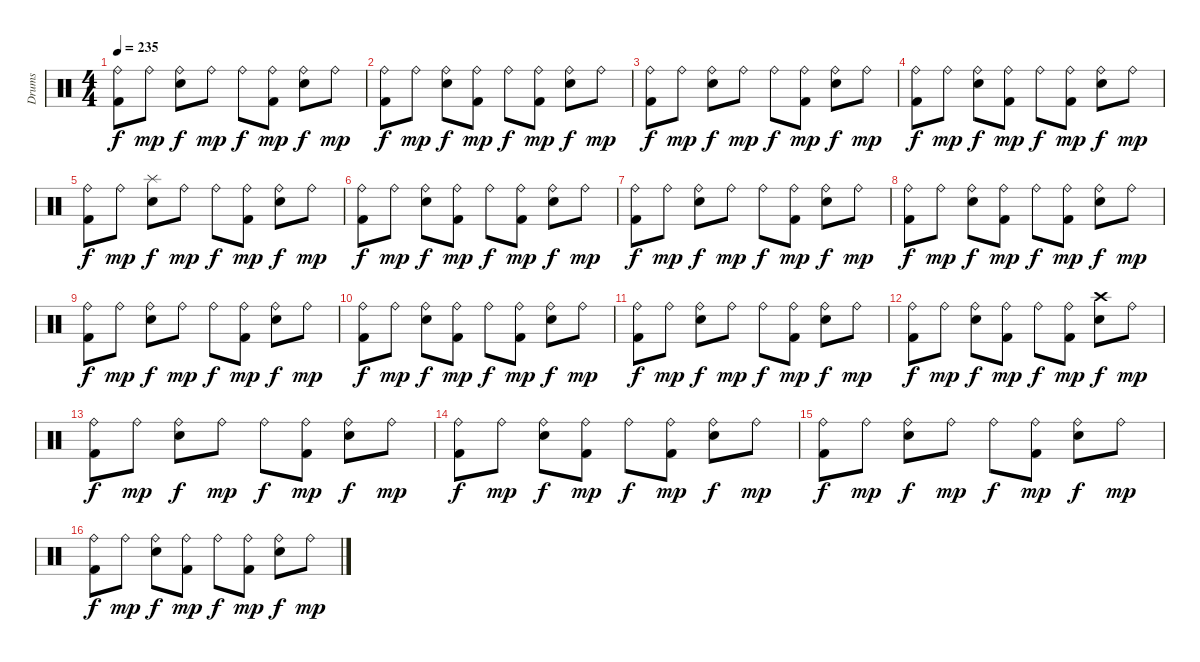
\track ("Drums" "Drums") {instrument percussion}
\staff {score}
\articulation defaults
\ts (4 4)
\tempo 235
\clef neutral
\ks c
("Ride (bell)" "Kick (hit) 2").8{dy f} "Ride (bell)".8{dy mp} ("Ride (bell)" "Snare (hit) 2").8{dy f} "Ride (bell)".8{dy mp} "Ride (bell)".8{dy f} ("Ride (bell)" "Kick (hit) 2").8{dy mp} ("Ride (bell)" "Snare (hit) 2").8{dy f} "Ride (bell)".8{dy mp} |
("Ride (bell)" "Kick (hit) 2").8{dy f} "Ride (bell)".8{dy mp} ("Ride (bell)" "Snare (hit) 2").8{dy f} ("Ride (bell)" "Kick (hit) 2").8{dy mp} "Ride (bell)".8{dy f} ("Ride (bell)" "Kick (hit) 2").8{dy mp} ("Ride (bell)" "Snare (hit) 2").8{dy f} "Ride (bell)".8{dy mp} |
("Ride (bell)" "Kick (hit) 2").8{dy f} "Ride (bell)".8{dy mp} ("Ride (bell)" "Snare (hit) 2").8{dy f} "Ride (bell)".8{dy mp} "Ride (bell)".8{dy f} ("Ride (bell)" "Kick (hit) 2").8{dy mp} ("Ride (bell)" "Snare (hit) 2").8{dy f} "Ride (bell)".8{dy mp} |
("Ride (bell)" "Kick (hit) 2").8{dy f} "Ride (bell)".8{dy mp} ("Ride (bell)" "Snare (hit) 2").8{dy f} ("Ride (bell)" "Kick (hit) 2").8{dy mp} "Ride (bell)".8{dy f} ("Ride (bell)" "Kick (hit) 2").8{dy mp} ("Ride (bell)" "Snare (hit) 2").8{dy f} "Ride (bell)".8{dy mp} |
("Ride (bell)" "Kick (hit) 2").8{dy f} "Ride (bell)".8{dy mp} ("Splash (hit)" "Snare (hit) 2").8{dy f} "Ride (bell)".8{dy mp} "Ride (bell)".8{dy f} ("Ride (bell)" "Kick (hit) 2").8{dy mp} ("Ride (bell)" "Snare (hit) 2").8{dy f} "Ride (bell)".8{dy mp} |
("Ride (bell)" "Kick (hit) 2").8{dy f} "Ride (bell)".8{dy mp} ("Ride (bell)" "Snare (hit) 2").8{dy f} ("Ride (bell)" "Kick (hit) 2").8{dy mp} "Ride (bell)".8{dy f} ("Ride (bell)" "Kick (hit) 2").8{dy mp} ("Ride (bell)" "Snare (hit) 2").8{dy f} "Ride (bell)".8{dy mp} |
("Ride (bell)" "Kick (hit) 2").8{dy f} "Ride (bell)".8{dy mp} ("Ride (bell)" "Snare (hit) 2").8{dy f} "Ride (bell)".8{dy mp} "Ride (bell)".8{dy f} ("Ride (bell)" "Kick (hit) 2").8{dy mp} ("Ride (bell)" "Snare (hit) 2").8{dy f} "Ride (bell)".8{dy mp} |
("Ride (bell)" "Kick (hit) 2").8{dy f} "Ride (bell)".8{dy mp} ("Ride (bell)" "Snare (hit) 2").8{dy f} ("Ride (bell)" "Kick (hit) 2").8{dy mp} "Ride (bell)".8{dy f} ("Ride (bell)" "Kick (hit) 2").8{dy mp} ("Ride (bell)" "Snare (hit) 2").8{dy f} "Ride (bell)".8{dy mp} |
("Ride (bell)" "Kick (hit) 2").8{dy f} "Ride (bell)".8{dy mp} ("Ride (bell)" "Snare (hit) 2").8{dy f} "Ride (bell)".8{dy mp} "Ride (bell)".8{dy f} ("Ride (bell)" "Kick (hit) 2").8{dy mp} ("Ride (bell)" "Snare (hit) 2").8{dy f} "Ride (bell)".8{dy mp} |
("Ride (bell)" "Kick (hit) 2").8{dy f} "Ride (bell)".8{dy mp} ("Ride (bell)" "Snare (hit) 2").8{dy f} ("Ride (bell)" "Kick (hit) 2").8{dy mp} "Ride (bell)".8{dy f} ("Ride (bell)" "Kick (hit) 2").8{dy mp} ("Ride (bell)" "Snare (hit) 2").8{dy f} "Ride (bell)".8{dy mp} |
("Ride (bell)" "Kick (hit) 2").8{dy f} "Ride (bell)".8{dy mp} ("Ride (bell)" "Snare (hit) 2").8{dy f} "Ride (bell)".8{dy mp} "Ride (bell)".8{dy f} ("Ride (bell)" "Kick (hit) 2").8{dy mp} ("Ride (bell)" "Snare (hit) 2").8{dy f} "Ride (bell)".8{dy mp} |
("Ride (bell)" "Kick (hit) 2").8{dy f} "Ride (bell)".8{dy mp} ("Ride (bell)" "Snare (hit) 2").8{dy f} ("Ride (bell)" "Kick (hit) 2").8{dy mp} "Ride (bell)".8{dy f} ("Ride (bell)" "Kick (hit) 2").8{dy mp} ("Crash high (hit)" "Snare (hit) 2").8{dy f} "Ride (bell)".8{dy mp} |
("Ride (bell)" "Kick (hit) 2").8{dy f} "Ride (bell)".8{dy mp} ("Ride (bell)" "Snare (hit) 2").8{dy f} "Ride (bell)".8{dy mp} "Ride (bell)".8{dy f} ("Ride (bell)" "Kick (hit) 2").8{dy mp} ("Ride (bell)" "Snare (hit) 2").8{dy f} "Ride (bell)".8{dy mp} |
("Ride (bell)" "Kick (hit) 2").8{dy f} "Ride (bell)".8{dy mp} ("Ride (bell)" "Snare (hit) 2").8{dy f} ("Ride (bell)" "Kick (hit) 2").8{dy mp} "Ride (bell)".8{dy f} ("Ride (bell)" "Kick (hit) 2").8{dy mp} ("Ride (bell)" "Snare (hit) 2").8{dy f} "Ride (bell)".8{dy mp} |
("Ride (bell)" "Kick (hit) 2").8{dy f} "Ride (bell)".8{dy mp} ("Ride (bell)" "Snare (hit) 2").8{dy f} "Ride (bell)".8{dy mp} "Ride (bell)".8{dy f} ("Ride (bell)" "Kick (hit) 2").8{dy mp} ("Ride (bell)" "Snare (hit) 2").8{dy f} "Ride (bell)".8{dy mp} |
("Ride (bell)" "Kick (hit) 2").8{dy f} "Ride (bell)".8{dy mp} ("Ride (bell)" "Snare (hit) 2").8{dy f} ("Ride (bell)" "Kick (hit) 2").8{dy mp} "Ride (bell)".8{dy f} ("Ride (bell)" "Kick (hit) 2").8{dy mp} ("Ride (bell)" "Snare (hit) 2").8{dy f} "Ride (bell)".8{dy mp}
